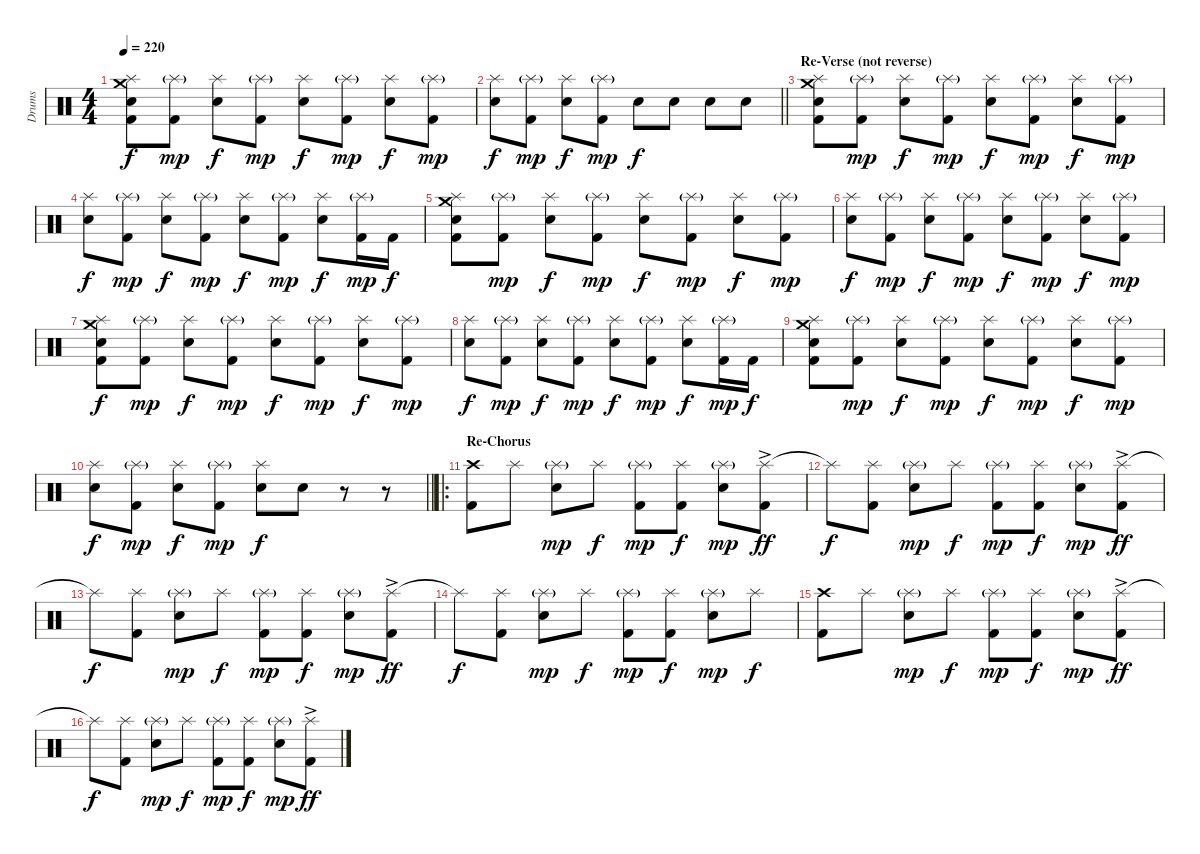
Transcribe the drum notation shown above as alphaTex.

\track ("Drums" "Drums") {instrument percussion}
\staff {score}
\articulation defaults
\ts (4 4)
\tempo 220
\clef neutral
\ks c
("Crash medium (hit)" "Splash (hit)" "Electric Snare (hit)" "Kick (hit) 2").8{dy f} ("Splash (hit)"{g} "Kick (hit) 2").8{dy mp} ("Splash (hit)" "Electric Snare (hit)").8{dy f} ("Splash (hit)"{g} "Kick (hit) 2").8{dy mp} ("Splash (hit)" "Electric Snare (hit)").8{dy f} ("Splash (hit)"{g} "Kick (hit) 2").8{dy mp} ("Splash (hit)" "Electric Snare (hit)").8{dy f} ("Splash (hit)"{g} "Kick (hit) 2").8{dy mp} |
\barLineRight lightlight
("Splash (hit)" "Electric Snare (hit)").8{dy f} ("Splash (hit)"{g} "Kick (hit) 2").8{dy mp} ("Splash (hit)" "Electric Snare (hit)").8{dy f} ("Splash (hit)"{g} "Kick (hit) 2").8{dy mp} "Electric Snare (hit)".8{dy f} "Electric Snare (hit)".8 "Electric Snare (hit)".8 "Electric Snare (hit)".8 |
\section ("" "Re-Verse (not reverse)")
("Crash medium (hit)" "Splash (hit)" "Electric Snare (hit)" "Kick (hit) 2").8 ("Splash (hit)"{g} "Kick (hit) 2").8{dy mp} ("Splash (hit)" "Electric Snare (hit)").8{dy f} ("Splash (hit)"{g} "Kick (hit) 2").8{dy mp} ("Splash (hit)" "Electric Snare (hit)").8{dy f} ("Splash (hit)"{g} "Kick (hit) 2").8{dy mp} ("Splash (hit)" "Electric Snare (hit)").8{dy f} ("Splash (hit)"{g} "Kick (hit) 2").8{dy mp} |
("Splash (hit)" "Electric Snare (hit)").8{dy f} ("Splash (hit)"{g} "Kick (hit) 2").8{dy mp} ("Splash (hit)" "Electric Snare (hit)").8{dy f} ("Splash (hit)"{g} "Kick (hit) 2").8{dy mp} ("Splash (hit)" "Electric Snare (hit)").8{dy f} ("Splash (hit)"{g} "Kick (hit) 2").8{dy mp} ("Splash (hit)" "Electric Snare (hit)").8{dy f} ("Splash (hit)"{g} "Kick (hit) 2").16{dy mp} "Kick (hit) 2".16{dy f} |
("Crash medium (hit)" "Splash (hit)" "Electric Snare (hit)" "Kick (hit) 2").8 ("Splash (hit)"{g} "Kick (hit) 2").8{dy mp} ("Splash (hit)" "Electric Snare (hit)").8{dy f} ("Splash (hit)"{g} "Kick (hit) 2").8{dy mp} ("Splash (hit)" "Electric Snare (hit)").8{dy f} ("Splash (hit)"{g} "Kick (hit) 2").8{dy mp} ("Splash (hit)" "Electric Snare (hit)").8{dy f} ("Splash (hit)"{g} "Kick (hit) 2").8{dy mp} |
("Splash (hit)" "Electric Snare (hit)").8{dy f} ("Splash (hit)"{g} "Kick (hit) 2").8{dy mp} ("Splash (hit)" "Electric Snare (hit)").8{dy f} ("Splash (hit)"{g} "Kick (hit) 2").8{dy mp} ("Splash (hit)" "Electric Snare (hit)").8{dy f} ("Splash (hit)"{g} "Kick (hit) 2").8{dy mp} ("Splash (hit)" "Electric Snare (hit)").8{dy f} ("Splash (hit)"{g} "Kick (hit) 2").8{dy mp} |
("Crash medium (hit)" "Splash (hit)" "Electric Snare (hit)" "Kick (hit) 2").8{dy f} ("Splash (hit)"{g} "Kick (hit) 2").8{dy mp} ("Splash (hit)" "Electric Snare (hit)").8{dy f} ("Splash (hit)"{g} "Kick (hit) 2").8{dy mp} ("Splash (hit)" "Electric Snare (hit)").8{dy f} ("Splash (hit)"{g} "Kick (hit) 2").8{dy mp} ("Splash (hit)" "Electric Snare (hit)").8{dy f} ("Splash (hit)"{g} "Kick (hit) 2").8{dy mp} |
("Splash (hit)" "Electric Snare (hit)").8{dy f} ("Splash (hit)"{g} "Kick (hit) 2").8{dy mp} ("Splash (hit)" "Electric Snare (hit)").8{dy f} ("Splash (hit)"{g} "Kick (hit) 2").8{dy mp} ("Splash (hit)" "Electric Snare (hit)").8{dy f} ("Splash (hit)"{g} "Kick (hit) 2").8{dy mp} ("Splash (hit)" "Electric Snare (hit)").8{dy f} ("Splash (hit)"{g} "Kick (hit) 2").16{dy mp} "Kick (hit) 2".16{dy f} |
("Crash medium (hit)" "Splash (hit)" "Electric Snare (hit)" "Kick (hit) 2").8 ("Splash (hit)"{g} "Kick (hit) 2").8{dy mp} ("Splash (hit)" "Electric Snare (hit)").8{dy f} ("Splash (hit)"{g} "Kick (hit) 2").8{dy mp} ("Splash (hit)" "Electric Snare (hit)").8{dy f} ("Splash (hit)"{g} "Kick (hit) 2").8{dy mp} ("Splash (hit)" "Electric Snare (hit)").8{dy f} ("Splash (hit)"{g} "Kick (hit) 2").8{dy mp} |
\barLineRight lightlight
("Splash (hit)" "Electric Snare (hit)").8{dy f} ("Splash (hit)"{g} "Kick (hit) 2").8{dy mp} ("Splash (hit)" "Electric Snare (hit)").8{dy f} ("Splash (hit)"{g} "Kick (hit) 2").8{dy mp} ("Splash (hit)" "Electric Snare (hit)").8{dy f} "Electric Snare (hit)".8 r.8 r.8 |
\ro
\section ("" "Re-Chorus")
("Crash high (hit)" "Kick (hit) 2").8 "Splash (hit)".8 ("Splash (hit)"{g} "Electric Snare (hit)").8{dy mp} "Splash (hit)".8{dy f} ("Splash (hit)"{g} "Kick (hit) 2").8{dy mp} ("Splash (hit)" "Kick (hit) 2").8{dy f} ("Splash (hit)"{g} "Electric Snare (hit)").8{dy mp} ("Splash (hit)"{ac} "Kick (hit) 2").8{dy ff} |
"Splash (hit)"{t}.8{dy f} ("Splash (hit)" "Kick (hit) 2").8 ("Splash (hit)"{g} "Electric Snare (hit)").8{dy mp} "Splash (hit)".8{dy f} ("Splash (hit)"{g} "Kick (hit) 2").8{dy mp} ("Splash (hit)" "Kick (hit) 2").8{dy f} ("Splash (hit)"{g} "Electric Snare (hit)").8{dy mp} ("Splash (hit)"{ac} "Kick (hit) 2").8{dy ff} |
"Splash (hit)"{t}.8{dy f} ("Splash (hit)" "Kick (hit) 2").8 ("Splash (hit)"{g} "Electric Snare (hit)").8{dy mp} "Splash (hit)".8{dy f} ("Splash (hit)"{g} "Kick (hit) 2").8{dy mp} ("Splash (hit)" "Kick (hit) 2").8{dy f} ("Splash (hit)"{g} "Electric Snare (hit)").8{dy mp} ("Splash (hit)"{ac} "Kick (hit) 2").8{dy ff} |
"Splash (hit)"{t}.8{dy f} ("Splash (hit)" "Kick (hit) 2").8 ("Splash (hit)"{g} "Electric Snare (hit)").8{dy mp} "Splash (hit)".8{dy f} ("Splash (hit)"{g} "Kick (hit) 2").8{dy mp} ("Splash (hit)" "Kick (hit) 2").8{dy f} ("Splash (hit)"{g} "Electric Snare (hit)").8{dy mp} "Splash (hit)".8{dy f} |
("Crash high (hit)" "Kick (hit) 2").8 "Splash (hit)".8 ("Splash (hit)"{g} "Electric Snare (hit)").8{dy mp} "Splash (hit)".8{dy f} ("Splash (hit)"{g} "Kick (hit) 2").8{dy mp} ("Splash (hit)" "Kick (hit) 2").8{dy f} ("Splash (hit)"{g} "Electric Snare (hit)").8{dy mp} ("Splash (hit)"{ac} "Kick (hit) 2").8{dy ff} |
"Splash (hit)"{t}.8{dy f} ("Splash (hit)" "Kick (hit) 2").8 ("Splash (hit)"{g} "Electric Snare (hit)").8{dy mp} "Splash (hit)".8{dy f} ("Splash (hit)"{g} "Kick (hit) 2").8{dy mp} ("Splash (hit)" "Kick (hit) 2").8{dy f} ("Splash (hit)"{g} "Electric Snare (hit)").8{dy mp} ("Splash (hit)"{ac} "Kick (hit) 2").8{dy ff}
